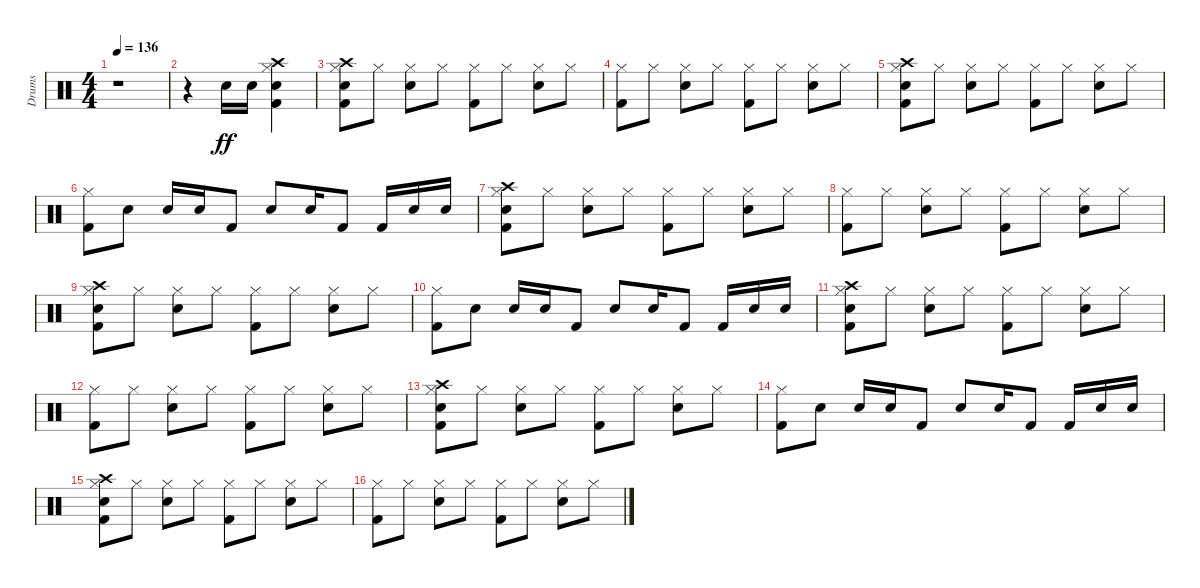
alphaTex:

\track ("Drums" "Drums") {instrument percussion}
\staff {score}
\articulation defaults
\ts (4 4)
\tempo 136
\clef neutral
\ks c
r.1{dy ff} |
r.4 "Snare (hit) 2".16 "Snare (hit) 2".16 ("Kick (hit) 2" "Snare (hit) 2" "Hi-Hat (closed)" "Crash high (hit)").4 |
("Kick (hit) 2" "Snare (hit) 2" "Hi-Hat (closed)" "Crash high (hit)").8 "Hi-Hat (closed)".8 ("Snare (hit) 2" "Hi-Hat (closed)").8 "Hi-Hat (closed)".8 ("Kick (hit) 2" "Hi-Hat (closed)").8 "Hi-Hat (closed)".8 ("Snare (hit) 2" "Hi-Hat (closed)").8 "Hi-Hat (closed)".8 |
("Kick (hit) 2" "Hi-Hat (closed)").8 "Hi-Hat (closed)".8 ("Snare (hit) 2" "Hi-Hat (closed)").8 "Hi-Hat (closed)".8 ("Kick (hit) 2" "Hi-Hat (closed)").8 "Hi-Hat (closed)".8 ("Snare (hit) 2" "Hi-Hat (closed)").8 "Hi-Hat (closed)".8 |
("Kick (hit) 2" "Snare (hit) 2" "Hi-Hat (closed)" "Crash high (hit)").8 "Hi-Hat (closed)".8 ("Snare (hit) 2" "Hi-Hat (closed)").8 "Hi-Hat (closed)".8 ("Kick (hit) 2" "Hi-Hat (closed)").8 "Hi-Hat (closed)".8 ("Snare (hit) 2" "Hi-Hat (closed)").8 "Hi-Hat (closed)".8 |
("Kick (hit) 2" "Hi-Hat (closed)").8 "Snare (hit) 2".8 "Snare (hit) 2".16 "Snare (hit) 2".16 "Kick (hit) 2".8 "Snare (hit) 2".8 "Snare (hit) 2".16 "Kick (hit) 2".8 "Kick (hit) 2".16 "Snare (hit) 2".16 "Snare (hit) 2".16 |
("Kick (hit) 2" "Snare (hit) 2" "Hi-Hat (closed)" "Crash high (hit)").8 "Hi-Hat (closed)".8 ("Snare (hit) 2" "Hi-Hat (closed)").8 "Hi-Hat (closed)".8 ("Kick (hit) 2" "Hi-Hat (closed)").8 "Hi-Hat (closed)".8 ("Snare (hit) 2" "Hi-Hat (closed)").8 "Hi-Hat (closed)".8 |
("Kick (hit) 2" "Hi-Hat (closed)").8 "Hi-Hat (closed)".8 ("Snare (hit) 2" "Hi-Hat (closed)").8 "Hi-Hat (closed)".8 ("Kick (hit) 2" "Hi-Hat (closed)").8 "Hi-Hat (closed)".8 ("Snare (hit) 2" "Hi-Hat (closed)").8 "Hi-Hat (closed)".8 |
("Kick (hit) 2" "Snare (hit) 2" "Hi-Hat (closed)" "Crash high (hit)").8 "Hi-Hat (closed)".8 ("Snare (hit) 2" "Hi-Hat (closed)").8 "Hi-Hat (closed)".8 ("Kick (hit) 2" "Hi-Hat (closed)").8 "Hi-Hat (closed)".8 ("Snare (hit) 2" "Hi-Hat (closed)").8 "Hi-Hat (closed)".8 |
("Kick (hit) 2" "Hi-Hat (closed)").8 "Snare (hit) 2".8 "Snare (hit) 2".16 "Snare (hit) 2".16 "Kick (hit) 2".8 "Snare (hit) 2".8 "Snare (hit) 2".16 "Kick (hit) 2".8 "Kick (hit) 2".16 "Snare (hit) 2".16 "Snare (hit) 2".16 |
("Kick (hit) 2" "Snare (hit) 2" "Hi-Hat (closed)" "Crash high (hit)").8 "Hi-Hat (closed)".8 ("Snare (hit) 2" "Hi-Hat (closed)").8 "Hi-Hat (closed)".8 ("Kick (hit) 2" "Hi-Hat (closed)").8 "Hi-Hat (closed)".8 ("Snare (hit) 2" "Hi-Hat (closed)").8 "Hi-Hat (closed)".8 |
("Kick (hit) 2" "Hi-Hat (closed)").8 "Hi-Hat (closed)".8 ("Snare (hit) 2" "Hi-Hat (closed)").8 "Hi-Hat (closed)".8 ("Kick (hit) 2" "Hi-Hat (closed)").8 "Hi-Hat (closed)".8 ("Snare (hit) 2" "Hi-Hat (closed)").8 "Hi-Hat (closed)".8 |
("Kick (hit) 2" "Snare (hit) 2" "Hi-Hat (closed)" "Crash high (hit)").8 "Hi-Hat (closed)".8 ("Snare (hit) 2" "Hi-Hat (closed)").8 "Hi-Hat (closed)".8 ("Kick (hit) 2" "Hi-Hat (closed)").8 "Hi-Hat (closed)".8 ("Snare (hit) 2" "Hi-Hat (closed)").8 "Hi-Hat (closed)".8 |
("Kick (hit) 2" "Hi-Hat (closed)").8 "Snare (hit) 2".8 "Snare (hit) 2".16 "Snare (hit) 2".16 "Kick (hit) 2".8 "Snare (hit) 2".8 "Snare (hit) 2".16 "Kick (hit) 2".8 "Kick (hit) 2".16 "Snare (hit) 2".16 "Snare (hit) 2".16 |
("Kick (hit) 2" "Snare (hit) 2" "Hi-Hat (closed)" "Crash high (hit)").8 "Hi-Hat (closed)".8 ("Snare (hit) 2" "Hi-Hat (closed)").8 "Hi-Hat (closed)".8 ("Kick (hit) 2" "Hi-Hat (closed)").8 "Hi-Hat (closed)".8 ("Snare (hit) 2" "Hi-Hat (closed)").8 "Hi-Hat (closed)".8 |
("Kick (hit) 2" "Hi-Hat (closed)").8 "Hi-Hat (closed)".8 ("Snare (hit) 2" "Hi-Hat (closed)").8 "Hi-Hat (closed)".8 ("Kick (hit) 2" "Hi-Hat (closed)").8 "Hi-Hat (closed)".8 ("Snare (hit) 2" "Hi-Hat (closed)").8 "Hi-Hat (closed)".8
